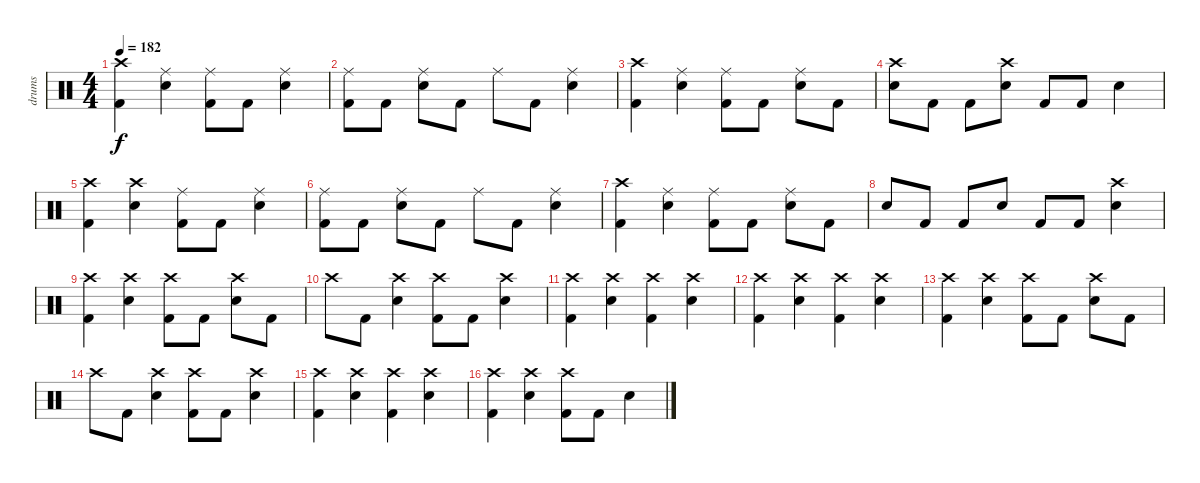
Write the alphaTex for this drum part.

\track ("drums" "drums") {instrument percussion}
\staff {score}
\articulation defaults
\ts (4 4)
\tempo 182
\clef neutral
\ks c
("Crash high (hit)" "Kick (hit) 2").4{dy f} ("Ride (middle)" "Electric Snare (hit)").4 ("Ride (middle)" "Kick (hit) 2").8 "Kick (hit) 2".8 ("Ride (middle)" "Electric Snare (hit)").4 |
("Ride (middle)" "Kick (hit) 2").8 "Kick (hit) 2".8 ("Ride (middle)" "Electric Snare (hit)").8 "Kick (hit) 2".8 "Ride (middle)".8 "Kick (hit) 2".8 ("Ride (middle)" "Electric Snare (hit)").4 |
("Crash high (hit)" "Kick (hit) 2").4 ("Ride (middle)" "Electric Snare (hit)").4 ("Ride (middle)" "Kick (hit) 2").8 "Kick (hit) 2".8 ("Ride (middle)" "Electric Snare (hit)").8 "Kick (hit) 2".8 |
("Crash high (hit)" "Electric Snare (hit)").8 "Kick (hit) 2".8 "Kick (hit) 2".8 ("Crash high (hit)" "Electric Snare (hit)").8 "Kick (hit) 2".8 "Kick (hit) 2".8 "Electric Snare (hit)".4 |
("Crash high (hit)" "Kick (hit) 2").4 ("Crash high (hit)" "Electric Snare (hit)").4 ("Ride (middle)" "Kick (hit) 2").8 "Kick (hit) 2".8 ("Ride (middle)" "Electric Snare (hit)").4 |
("Ride (middle)" "Kick (hit) 2").8 "Kick (hit) 2".8 ("Ride (middle)" "Electric Snare (hit)").8 "Kick (hit) 2".8 "Ride (middle)".8 "Kick (hit) 2".8 ("Ride (middle)" "Electric Snare (hit)").4 |
("Crash high (hit)" "Kick (hit) 2").4 ("Ride (middle)" "Electric Snare (hit)").4 ("Ride (middle)" "Kick (hit) 2").8 "Kick (hit) 2".8 ("Ride (middle)" "Electric Snare (hit)").8 "Kick (hit) 2".8 |
"Electric Snare (hit)".8 "Kick (hit) 2".8 "Kick (hit) 2".8 "Electric Snare (hit)".8 "Kick (hit) 2".8 "Kick (hit) 2".8 ("Crash high (hit)" "Electric Snare (hit)").4 |
("Crash high (hit)" "Kick (hit) 2").4 ("Crash high (hit)" "Electric Snare (hit)").4 ("Crash high (hit)" "Kick (hit) 2").8 "Kick (hit) 2".8 ("Crash high (hit)" "Electric Snare (hit)").8 "Kick (hit) 2".8 |
"Crash high (hit)".8 "Kick (hit) 2".8 ("Crash high (hit)" "Electric Snare (hit)").4 ("Crash high (hit)" "Kick (hit) 2").8 "Kick (hit) 2".8 ("Crash high (hit)" "Electric Snare (hit)").4 |
("Crash high (hit)" "Kick (hit) 2").4 ("Crash high (hit)" "Electric Snare (hit)").4 ("Crash high (hit)" "Kick (hit) 2").4 ("Crash high (hit)" "Electric Snare (hit)").4 |
("Crash high (hit)" "Kick (hit) 2").4 ("Crash high (hit)" "Electric Snare (hit)").4 ("Crash high (hit)" "Kick (hit) 2").4 ("Crash high (hit)" "Electric Snare (hit)").4 |
("Crash high (hit)" "Kick (hit) 2").4 ("Crash high (hit)" "Electric Snare (hit)").4 ("Crash high (hit)" "Kick (hit) 2").8 "Kick (hit) 2".8 ("Crash high (hit)" "Electric Snare (hit)").8 "Kick (hit) 2".8 |
"Crash high (hit)".8 "Kick (hit) 2".8 ("Crash high (hit)" "Electric Snare (hit)").4 ("Crash high (hit)" "Kick (hit) 2").8 "Kick (hit) 2".8 ("Crash high (hit)" "Electric Snare (hit)").4 |
("Crash high (hit)" "Kick (hit) 2").4 ("Crash high (hit)" "Electric Snare (hit)").4 ("Crash high (hit)" "Kick (hit) 2").4 ("Crash high (hit)" "Electric Snare (hit)").4 |
("Crash high (hit)" "Kick (hit) 2").4 ("Crash high (hit)" "Electric Snare (hit)").4 ("Crash high (hit)" "Kick (hit) 2").8 "Kick (hit) 2".8 "Electric Snare (hit)".4
